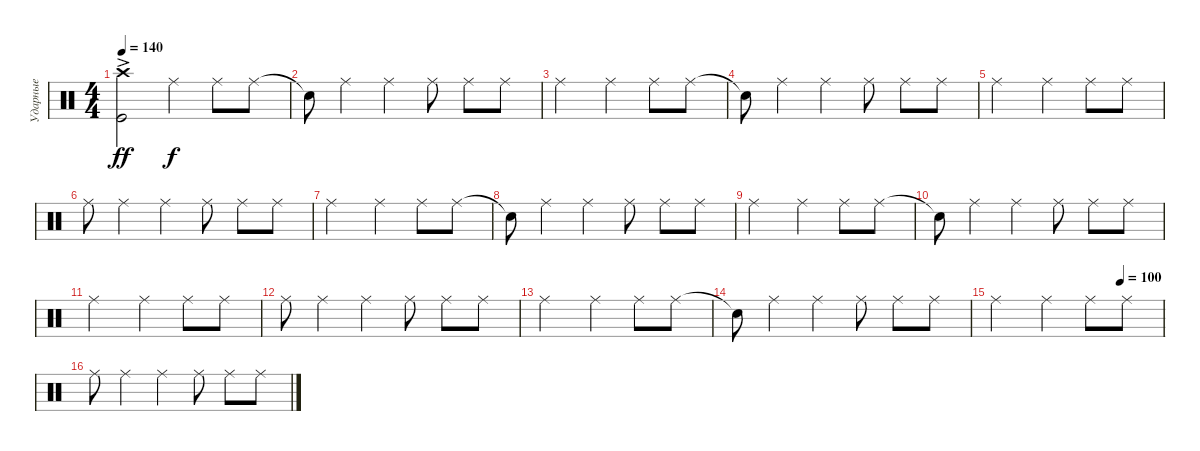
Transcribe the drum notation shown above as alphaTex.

\track ("Ударные" "Ударные") {instrument percussion}
\staff {score}
\articulation defaults
\ts (4 4)
\tempo 140
\clef neutral
\ks c
("Kick (hit)"{ac} "Crash high (hit)").2{dy ff} "Ride (middle)".4{dy f volume 8} "Ride (middle)".8 "Ride (middle)".8 |
"Snare (hit)"{t}.8 "Ride (middle)".4 "Ride (middle)".4 "Ride (middle)".8 "Ride (middle)".8 "Ride (middle)".8 |
"Ride (middle)".2 "Ride (middle)".4 "Ride (middle)".8 "Ride (middle)".8 |
"Snare (hit)"{t}.8 "Ride (middle)".4 "Ride (middle)".4 "Ride (middle)".8 "Ride (middle)".8 "Ride (middle)".8 |
"Ride (middle)".2 "Ride (middle)".4 "Ride (middle)".8 "Ride (middle)".8 |
"Ride (middle)".8 "Ride (middle)".4 "Ride (middle)".4 "Ride (middle)".8 "Ride (middle)".8 "Ride (middle)".8 |
"Ride (middle)".2 "Ride (middle)".4 "Ride (middle)".8 "Ride (middle)".8 |
"Snare (hit)"{t}.8 "Ride (middle)".4 "Ride (middle)".4 "Ride (middle)".8 "Ride (middle)".8 "Ride (middle)".8 |
"Ride (middle)".2 "Ride (middle)".4 "Ride (middle)".8 "Ride (middle)".8 |
"Snare (hit)"{t}.8 "Ride (middle)".4 "Ride (middle)".4 "Ride (middle)".8 "Ride (middle)".8 "Ride (middle)".8 |
"Ride (middle)".2 "Ride (middle)".4 "Ride (middle)".8 "Ride (middle)".8 |
"Ride (middle)".8 "Ride (middle)".4 "Ride (middle)".4 "Ride (middle)".8 "Ride (middle)".8 "Ride (middle)".8 |
"Ride (middle)".2 "Ride (middle)".4 "Ride (middle)".8 "Ride (middle)".8 |
"Snare (hit)"{t}.8 "Ride (middle)".4 "Ride (middle)".4 "Ride (middle)".8 "Ride (middle)".8 "Ride (middle)".8 |
\tempo (100 0.75)
"Ride (middle)".2 "Ride (middle)".4 "Ride (middle)".8 "Ride (middle)".8 |
"Ride (middle)".8 "Ride (middle)".4 "Ride (middle)".4 "Ride (middle)".8 "Ride (middle)".8 "Ride (middle)".8
